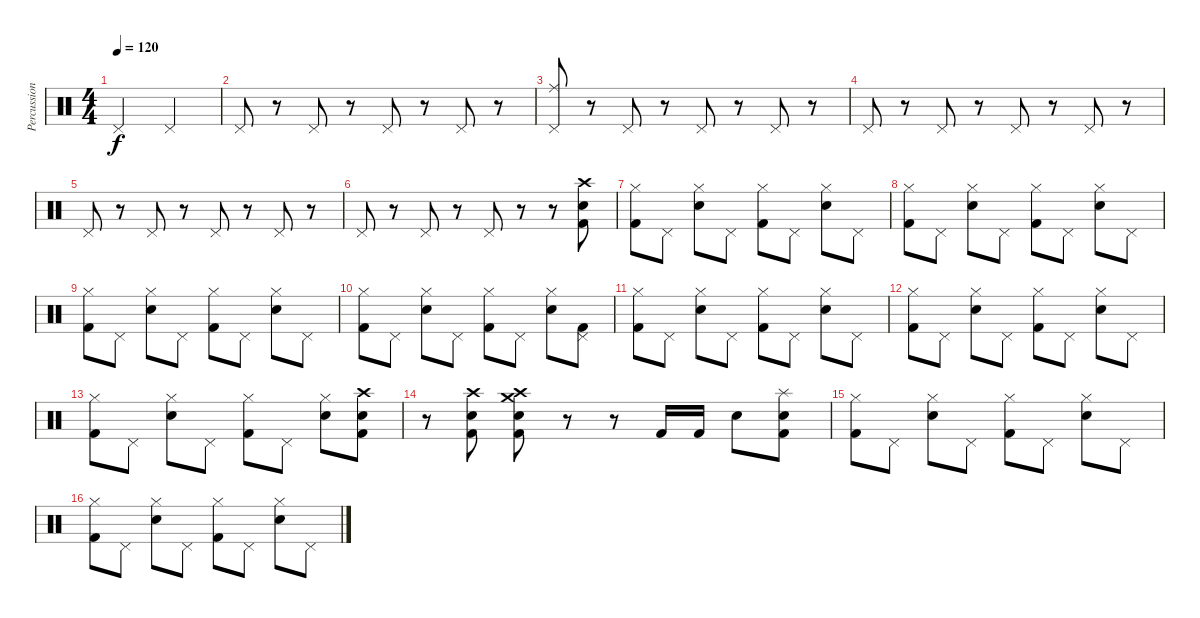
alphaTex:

\track ("Percussion" "Percussion") {instrument percussion}
\staff {score}
\articulation defaults
\ts (4 4)
\tempo 120
\clef neutral
\ks c "Pedal Hi-Hat (hit)".2{dy f} "Pedal Hi-Hat (hit)".2
|
"Pedal Hi-Hat (hit)".8 r.8 "Pedal Hi-Hat (hit)".8 r.8 "Pedal Hi-Hat (hit)".8 r.8 "Pedal Hi-Hat (hit)".8 r.8 |
("Pedal Hi-Hat (hit)" "Ride (middle)").8 r.8 "Pedal Hi-Hat (hit)".8 r.8 "Pedal Hi-Hat (hit)".8 r.8 "Pedal Hi-Hat (hit)".8 r.8 |
"Pedal Hi-Hat (hit)".8 r.8 "Pedal Hi-Hat (hit)".8 r.8 "Pedal Hi-Hat (hit)".8 r.8 "Pedal Hi-Hat (hit)".8 r.8 |
"Pedal Hi-Hat (hit)".8 r.8 "Pedal Hi-Hat (hit)".8 r.8 "Pedal Hi-Hat (hit)".8 r.8 "Pedal Hi-Hat (hit)".8 r.8 |
"Pedal Hi-Hat (hit)".8 r.8 "Pedal Hi-Hat (hit)".8 r.8 "Pedal Hi-Hat (hit)".8 r.8 r.8 ("Kick (hit) 2" "Snare (hit) 2" "Crash high (hit)").8 |
("Kick (hit) 2" "Hi-Hat (closed)").8 "Pedal Hi-Hat (hit)".8 ("Snare (hit) 2" "Hi-Hat (closed)").8 "Pedal Hi-Hat (hit)".8 ("Kick (hit) 2" "Hi-Hat (closed)").8 "Pedal Hi-Hat (hit)".8 ("Snare (hit) 2" "Hi-Hat (closed)").8 "Pedal Hi-Hat (hit)".8 |
("Kick (hit) 2" "Hi-Hat (closed)").8 "Pedal Hi-Hat (hit)".8 ("Snare (hit) 2" "Hi-Hat (closed)").8 "Pedal Hi-Hat (hit)".8 ("Kick (hit) 2" "Hi-Hat (closed)").8 "Pedal Hi-Hat (hit)".8 ("Snare (hit) 2" "Hi-Hat (closed)").8 "Pedal Hi-Hat (hit)".8 |
("Kick (hit) 2" "Hi-Hat (closed)").8 "Pedal Hi-Hat (hit)".8 ("Snare (hit) 2" "Hi-Hat (closed)").8 "Pedal Hi-Hat (hit)".8 ("Kick (hit) 2" "Hi-Hat (closed)").8 "Pedal Hi-Hat (hit)".8 ("Snare (hit) 2" "Hi-Hat (closed)").8 "Pedal Hi-Hat (hit)".8 |
("Kick (hit) 2" "Hi-Hat (closed)").8 "Pedal Hi-Hat (hit)".8 ("Snare (hit) 2" "Hi-Hat (closed)").8 "Pedal Hi-Hat (hit)".8 ("Kick (hit) 2" "Hi-Hat (closed)").8 "Pedal Hi-Hat (hit)".8 ("Snare (hit) 2" "Hi-Hat (closed)").8 ("Pedal Hi-Hat (hit)" "Kick (hit) 2").8 |
("Kick (hit) 2" "Hi-Hat (closed)").8 "Pedal Hi-Hat (hit)".8 ("Snare (hit) 2" "Hi-Hat (closed)").8 "Pedal Hi-Hat (hit)".8 ("Kick (hit) 2" "Hi-Hat (closed)").8 "Pedal Hi-Hat (hit)".8 ("Snare (hit) 2" "Hi-Hat (closed)").8 "Pedal Hi-Hat (hit)".8 |
("Kick (hit) 2" "Hi-Hat (closed)").8 "Pedal Hi-Hat (hit)".8 ("Snare (hit) 2" "Hi-Hat (closed)").8 "Pedal Hi-Hat (hit)".8 ("Kick (hit) 2" "Hi-Hat (closed)").8 "Pedal Hi-Hat (hit)".8 ("Snare (hit) 2" "Hi-Hat (closed)").8 "Pedal Hi-Hat (hit)".8 |
("Kick (hit) 2" "Hi-Hat (closed)").8 "Pedal Hi-Hat (hit)".8 ("Snare (hit) 2" "Hi-Hat (closed)").8 "Pedal Hi-Hat (hit)".8 ("Kick (hit) 2" "Hi-Hat (closed)").8 "Pedal Hi-Hat (hit)".8 ("Snare (hit) 2" "Hi-Hat (closed)").8 ("Kick (hit) 2" "Snare (hit) 2" "Crash high (hit)").8 |
r.8 ("Kick (hit) 2" "Snare (hit) 2" "Crash high (hit)").8 ("Kick (hit) 2" "Snare (hit) 2" "Crash high (hit)" "Crash medium (hit)").8 r.8 r.8 "Kick (hit) 2".16 "Kick (hit) 2".16 "Snare (hit) 2".8 ("Snare (hit) 2" "Kick (hit) 2" "Splash (hit)").8 |
("Kick (hit) 2" "Hi-Hat (closed)").8 "Pedal Hi-Hat (hit)".8 ("Snare (hit) 2" "Hi-Hat (closed)").8 "Pedal Hi-Hat (hit)".8 ("Kick (hit) 2" "Hi-Hat (closed)").8 "Pedal Hi-Hat (hit)".8 ("Snare (hit) 2" "Hi-Hat (closed)").8 "Pedal Hi-Hat (hit)".8 |
("Kick (hit) 2" "Hi-Hat (closed)").8 "Pedal Hi-Hat (hit)".8 ("Snare (hit) 2" "Hi-Hat (closed)").8 "Pedal Hi-Hat (hit)".8 ("Kick (hit) 2" "Hi-Hat (closed)").8 "Pedal Hi-Hat (hit)".8 ("Snare (hit) 2" "Hi-Hat (closed)").8 "Pedal Hi-Hat (hit)".8
